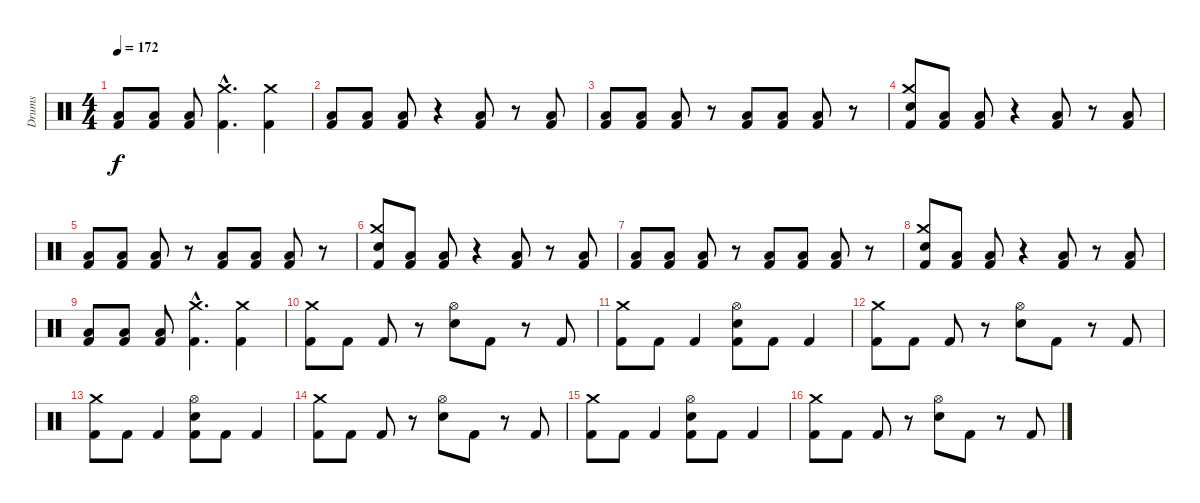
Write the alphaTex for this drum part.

\track ("Drums" "Drums") {instrument percussion}
\staff {score}
\articulation defaults
\ts (4 4)
\tempo 172
\clef neutral
\ks c
("Low Tom (hit)" "Kick (hit) 2").8{dy f} ("Low Tom (hit)" "Kick (hit) 2").8 ("Low Tom (hit)" "Kick (hit) 2").8 ("Crash medium (hit)"{hac} "Kick (hit) 2"{hac}).4{d} ("Crash medium (hit)" "Kick (hit) 2").4 |
("Low Tom (hit)" "Kick (hit) 2").8 ("Low Tom (hit)" "Kick (hit) 2").8 ("Low Tom (hit)" "Kick (hit) 2").8 r.4 ("Low Tom (hit)" "Kick (hit) 2").8 r.8 ("Low Tom (hit)" "Kick (hit) 2").8 |
("Low Tom (hit)" "Kick (hit) 2").8 ("Low Tom (hit)" "Kick (hit) 2").8 ("Low Tom (hit)" "Kick (hit) 2").8 r.8 ("Low Tom (hit)" "Kick (hit) 2").8 ("Low Tom (hit)" "Kick (hit) 2").8 ("Low Tom (hit)" "Kick (hit) 2").8 r.8 |
("Crash medium (hit)" "Snare (hit) 2" "Kick (hit) 2").8 ("Low Tom (hit)" "Kick (hit) 2").8 ("Low Tom (hit)" "Kick (hit) 2").8 r.4 ("Low Tom (hit)" "Kick (hit) 2").8 r.8 ("Low Tom (hit)" "Kick (hit) 2").8 |
("Low Tom (hit)" "Kick (hit) 2").8 ("Low Tom (hit)" "Kick (hit) 2").8 ("Low Tom (hit)" "Kick (hit) 2").8 r.8 ("Low Tom (hit)" "Kick (hit) 2").8 ("Low Tom (hit)" "Kick (hit) 2").8 ("Low Tom (hit)" "Kick (hit) 2").8 r.8 |
("Crash medium (hit)" "Snare (hit) 2" "Kick (hit) 2").8 ("Low Tom (hit)" "Kick (hit) 2").8 ("Low Tom (hit)" "Kick (hit) 2").8 r.4 ("Low Tom (hit)" "Kick (hit) 2").8 r.8 ("Low Tom (hit)" "Kick (hit) 2").8 |
("Low Tom (hit)" "Kick (hit) 2").8 ("Low Tom (hit)" "Kick (hit) 2").8 ("Low Tom (hit)" "Kick (hit) 2").8 r.8 ("Low Tom (hit)" "Kick (hit) 2").8 ("Low Tom (hit)" "Kick (hit) 2").8 ("Low Tom (hit)" "Kick (hit) 2").8 r.8 |
("Crash medium (hit)" "Snare (hit) 2" "Kick (hit) 2").8 ("Low Tom (hit)" "Kick (hit) 2").8 ("Low Tom (hit)" "Kick (hit) 2").8 r.4 ("Low Tom (hit)" "Kick (hit) 2").8 r.8 ("Low Tom (hit)" "Kick (hit) 2").8 |
("Low Tom (hit)" "Kick (hit) 2").8 ("Low Tom (hit)" "Kick (hit) 2").8 ("Low Tom (hit)" "Kick (hit) 2").8 ("Crash medium (hit)"{hac} "Kick (hit) 2"{hac}).4{d} ("Crash medium (hit)" "Kick (hit) 2").4 |
("Crash medium (hit)" "Kick (hit) 2").8 "Kick (hit) 2".8 "Kick (hit) 2".8 r.8 ("Hi-Hat (open)" "Snare (hit) 2").8 "Kick (hit) 2".8 r.8 "Kick (hit) 2".8 |
("Crash medium (hit)" "Kick (hit) 2").8 "Kick (hit) 2".8 "Kick (hit) 2".4 ("Hi-Hat (open)" "Snare (hit) 2" "Kick (hit) 2").8 "Kick (hit) 2".8 "Kick (hit) 2".4 |
("Crash medium (hit)" "Kick (hit) 2").8 "Kick (hit) 2".8 "Kick (hit) 2".8 r.8 ("Hi-Hat (open)" "Snare (hit) 2").8 "Kick (hit) 2".8 r.8 "Kick (hit) 2".8 |
("Crash medium (hit)" "Kick (hit) 2").8 "Kick (hit) 2".8 "Kick (hit) 2".4 ("Hi-Hat (open)" "Snare (hit) 2" "Kick (hit) 2").8 "Kick (hit) 2".8 "Kick (hit) 2".4 |
("Crash medium (hit)" "Kick (hit) 2").8 "Kick (hit) 2".8 "Kick (hit) 2".8 r.8 ("Hi-Hat (open)" "Snare (hit) 2").8 "Kick (hit) 2".8 r.8 "Kick (hit) 2".8 |
("Crash medium (hit)" "Kick (hit) 2").8 "Kick (hit) 2".8 "Kick (hit) 2".4 ("Hi-Hat (open)" "Snare (hit) 2" "Kick (hit) 2").8 "Kick (hit) 2".8 "Kick (hit) 2".4 |
("Crash medium (hit)" "Kick (hit) 2").8 "Kick (hit) 2".8 "Kick (hit) 2".8 r.8 ("Hi-Hat (open)" "Snare (hit) 2").8 "Kick (hit) 2".8 r.8 "Kick (hit) 2".8
